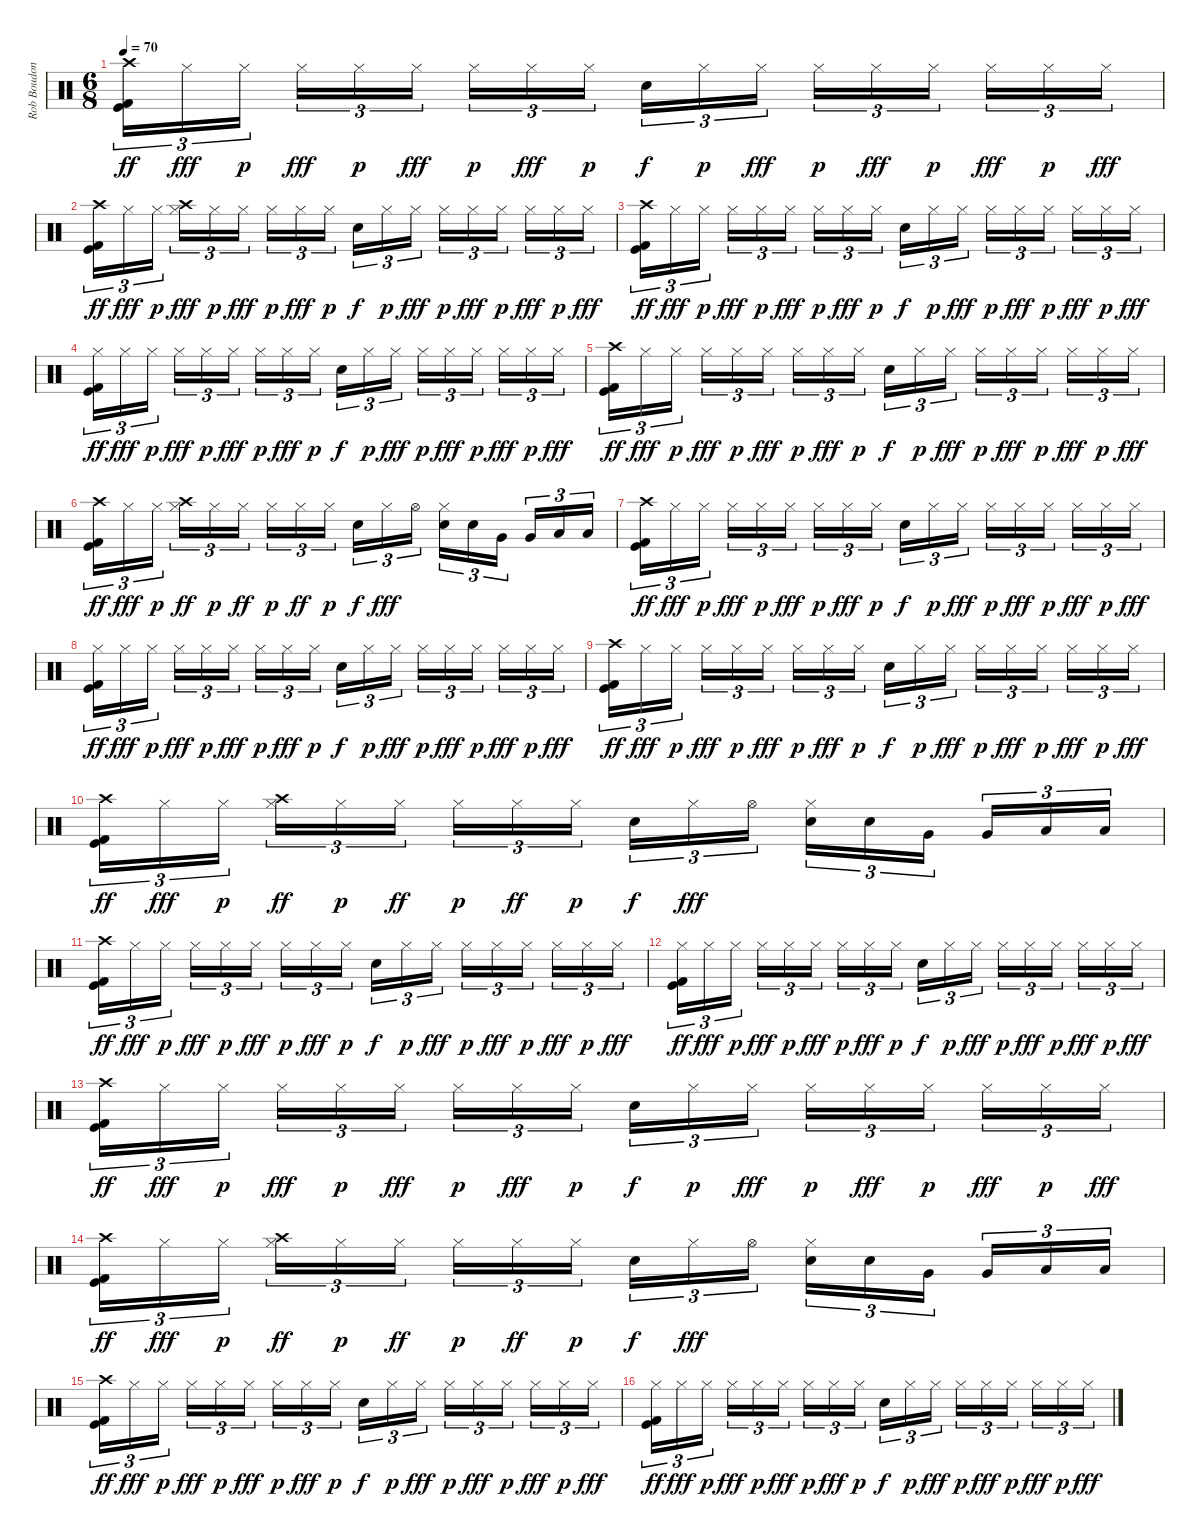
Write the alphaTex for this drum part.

\track ("Rob Boudon [Drums]" "Rob Boudon") {instrument percussion}
\staff {score}
\articulation defaults
\ts (6 8)
\tempo 70
\clef neutral
\ks c
("Crash high (hit)" "Kick (hit) 2" "Kick (hit)").16{tu (3 2) dy ff} "Hi-Hat (closed)".16{tu (3 2) dy fff} "Hi-Hat (closed)".16{tu (3 2) dy p beam splitsecondary} "Hi-Hat (closed)".16{tu (3 2) dy fff} "Hi-Hat (closed)".16{tu (3 2) dy p} "Hi-Hat (closed)".16{tu (3 2) dy fff beam splitsecondary} "Hi-Hat (closed)".16{tu (3 2) dy p} "Hi-Hat (closed)".16{tu (3 2) dy fff} "Hi-Hat (closed)".16{tu (3 2) dy p} "Electric Snare (hit)".16{tu (3 2) dy f} "Hi-Hat (closed)".16{tu (3 2) dy p} "Hi-Hat (closed)".16{tu (3 2) dy fff beam splitsecondary} "Hi-Hat (closed)".16{tu (3 2) dy p} "Hi-Hat (closed)".16{tu (3 2) dy fff} "Hi-Hat (closed)".16{tu (3 2) dy p beam splitsecondary} "Hi-Hat (closed)".16{tu (3 2) dy fff} "Hi-Hat (closed)".16{tu (3 2) dy p} "Hi-Hat (closed)".16{tu (3 2) dy fff} |
("Crash high (hit)" "Kick (hit) 2" "Kick (hit)").16{tu (3 2) dy ff} "Hi-Hat (closed)".16{tu (3 2) dy fff} "Hi-Hat (closed)".16{tu (3 2) dy p beam splitsecondary} ("Crash high (hit)" "Hi-Hat (closed)").16{tu (3 2) dy fff} "Hi-Hat (closed)".16{tu (3 2) dy p} "Hi-Hat (closed)".16{tu (3 2) dy fff beam splitsecondary} "Hi-Hat (closed)".16{tu (3 2) dy p} "Hi-Hat (closed)".16{tu (3 2) dy fff} "Hi-Hat (closed)".16{tu (3 2) dy p} "Electric Snare (hit)".16{tu (3 2) dy f} "Hi-Hat (closed)".16{tu (3 2) dy p} "Hi-Hat (closed)".16{tu (3 2) dy fff beam splitsecondary} "Hi-Hat (closed)".16{tu (3 2) dy p} "Hi-Hat (closed)".16{tu (3 2) dy fff} "Hi-Hat (closed)".16{tu (3 2) dy p beam splitsecondary} "Hi-Hat (closed)".16{tu (3 2) dy fff} "Hi-Hat (closed)".16{tu (3 2) dy p} "Hi-Hat (closed)".16{tu (3 2) dy fff} |
("Crash high (hit)" "Kick (hit) 2" "Kick (hit)").16{tu (3 2) dy ff} "Hi-Hat (closed)".16{tu (3 2) dy fff} "Hi-Hat (closed)".16{tu (3 2) dy p beam splitsecondary} "Hi-Hat (closed)".16{tu (3 2) dy fff} "Hi-Hat (closed)".16{tu (3 2) dy p} "Hi-Hat (closed)".16{tu (3 2) dy fff beam splitsecondary} "Hi-Hat (closed)".16{tu (3 2) dy p} "Hi-Hat (closed)".16{tu (3 2) dy fff} "Hi-Hat (closed)".16{tu (3 2) dy p} "Electric Snare (hit)".16{tu (3 2) dy f} "Hi-Hat (closed)".16{tu (3 2) dy p} "Hi-Hat (closed)".16{tu (3 2) dy fff beam splitsecondary} "Hi-Hat (closed)".16{tu (3 2) dy p} "Hi-Hat (closed)".16{tu (3 2) dy fff} "Hi-Hat (closed)".16{tu (3 2) dy p beam splitsecondary} "Hi-Hat (closed)".16{tu (3 2) dy fff} "Hi-Hat (closed)".16{tu (3 2) dy p} "Hi-Hat (closed)".16{tu (3 2) dy fff} |
("Hi-Hat (closed)" "Kick (hit) 2" "Kick (hit)").16{tu (3 2) dy ff} "Hi-Hat (closed)".16{tu (3 2) dy fff} "Hi-Hat (closed)".16{tu (3 2) dy p beam splitsecondary} "Hi-Hat (closed)".16{tu (3 2) dy fff} "Hi-Hat (closed)".16{tu (3 2) dy p} "Hi-Hat (closed)".16{tu (3 2) dy fff beam splitsecondary} "Hi-Hat (closed)".16{tu (3 2) dy p} "Hi-Hat (closed)".16{tu (3 2) dy fff} "Hi-Hat (closed)".16{tu (3 2) dy p} "Electric Snare (hit)".16{tu (3 2) dy f} "Hi-Hat (closed)".16{tu (3 2) dy p} "Hi-Hat (closed)".16{tu (3 2) dy fff beam splitsecondary} "Hi-Hat (closed)".16{tu (3 2) dy p} "Hi-Hat (closed)".16{tu (3 2) dy fff} "Hi-Hat (closed)".16{tu (3 2) dy p beam splitsecondary} "Hi-Hat (closed)".16{tu (3 2) dy fff} "Hi-Hat (closed)".16{tu (3 2) dy p} "Hi-Hat (closed)".16{tu (3 2) dy fff} |
("Crash high (hit)" "Kick (hit) 2" "Kick (hit)").16{tu (3 2) dy ff} "Hi-Hat (closed)".16{tu (3 2) dy fff} "Hi-Hat (closed)".16{tu (3 2) dy p beam splitsecondary} "Hi-Hat (closed)".16{tu (3 2) dy fff} "Hi-Hat (closed)".16{tu (3 2) dy p} "Hi-Hat (closed)".16{tu (3 2) dy fff beam splitsecondary} "Hi-Hat (closed)".16{tu (3 2) dy p} "Hi-Hat (closed)".16{tu (3 2) dy fff} "Hi-Hat (closed)".16{tu (3 2) dy p} "Electric Snare (hit)".16{tu (3 2) dy f} "Hi-Hat (closed)".16{tu (3 2) dy p} "Hi-Hat (closed)".16{tu (3 2) dy fff beam splitsecondary} "Hi-Hat (closed)".16{tu (3 2) dy p} "Hi-Hat (closed)".16{tu (3 2) dy fff} "Hi-Hat (closed)".16{tu (3 2) dy p beam splitsecondary} "Hi-Hat (closed)".16{tu (3 2) dy fff} "Hi-Hat (closed)".16{tu (3 2) dy p} "Hi-Hat (closed)".16{tu (3 2) dy fff} |
("Crash high (hit)" "Kick (hit) 2" "Kick (hit)").16{tu (3 2) dy ff} "Hi-Hat (closed)".16{tu (3 2) dy fff} "Hi-Hat (closed)".16{tu (3 2) dy p beam splitsecondary} ("Crash high (hit)" "Hi-Hat (closed)").16{tu (3 2) dy ff} "Hi-Hat (closed)".16{tu (3 2) dy p} "Hi-Hat (closed)".16{tu (3 2) dy ff beam splitsecondary} "Hi-Hat (closed)".16{tu (3 2) dy p} "Hi-Hat (closed)".16{tu (3 2) dy ff} "Hi-Hat (closed)".16{tu (3 2) dy p} "Electric Snare (hit)".16{tu (3 2) dy f} "Hi-Hat (closed)".16{tu (3 2) dy fff} "Hi-Hat (open)".16{tu (3 2) beam splitsecondary} ("Hi-Hat (closed)" "Electric Snare (hit)").16{tu (3 2)} "Electric Snare (hit)".16{tu (3 2)} "Very Low Tom (hit)".16{tu (3 2) beam splitsecondary} "Very Low Tom (hit)".16{tu (3 2)} "Low Tom (hit)".16{tu (3 2)} "Low Tom (hit)".16{tu (3 2)} |
("Crash high (hit)" "Kick (hit) 2" "Kick (hit)").16{tu (3 2) dy ff} "Hi-Hat (closed)".16{tu (3 2) dy fff} "Hi-Hat (closed)".16{tu (3 2) dy p beam splitsecondary} "Hi-Hat (closed)".16{tu (3 2) dy fff} "Hi-Hat (closed)".16{tu (3 2) dy p} "Hi-Hat (closed)".16{tu (3 2) dy fff beam splitsecondary} "Hi-Hat (closed)".16{tu (3 2) dy p} "Hi-Hat (closed)".16{tu (3 2) dy fff} "Hi-Hat (closed)".16{tu (3 2) dy p} "Electric Snare (hit)".16{tu (3 2) dy f} "Hi-Hat (closed)".16{tu (3 2) dy p} "Hi-Hat (closed)".16{tu (3 2) dy fff beam splitsecondary} "Hi-Hat (closed)".16{tu (3 2) dy p} "Hi-Hat (closed)".16{tu (3 2) dy fff} "Hi-Hat (closed)".16{tu (3 2) dy p beam splitsecondary} "Hi-Hat (closed)".16{tu (3 2) dy fff} "Hi-Hat (closed)".16{tu (3 2) dy p} "Hi-Hat (closed)".16{tu (3 2) dy fff} |
("Hi-Hat (closed)" "Kick (hit) 2" "Kick (hit)").16{tu (3 2) dy ff} "Hi-Hat (closed)".16{tu (3 2) dy fff} "Hi-Hat (closed)".16{tu (3 2) dy p beam splitsecondary} "Hi-Hat (closed)".16{tu (3 2) dy fff} "Hi-Hat (closed)".16{tu (3 2) dy p} "Hi-Hat (closed)".16{tu (3 2) dy fff beam splitsecondary} "Hi-Hat (closed)".16{tu (3 2) dy p} "Hi-Hat (closed)".16{tu (3 2) dy fff} "Hi-Hat (closed)".16{tu (3 2) dy p} "Electric Snare (hit)".16{tu (3 2) dy f} "Hi-Hat (closed)".16{tu (3 2) dy p} "Hi-Hat (closed)".16{tu (3 2) dy fff beam splitsecondary} "Hi-Hat (closed)".16{tu (3 2) dy p} "Hi-Hat (closed)".16{tu (3 2) dy fff} "Hi-Hat (closed)".16{tu (3 2) dy p beam splitsecondary} "Hi-Hat (closed)".16{tu (3 2) dy fff} "Hi-Hat (closed)".16{tu (3 2) dy p} "Hi-Hat (closed)".16{tu (3 2) dy fff} |
("Crash high (hit)" "Kick (hit) 2" "Kick (hit)").16{tu (3 2) dy ff} "Hi-Hat (closed)".16{tu (3 2) dy fff} "Hi-Hat (closed)".16{tu (3 2) dy p beam splitsecondary} "Hi-Hat (closed)".16{tu (3 2) dy fff} "Hi-Hat (closed)".16{tu (3 2) dy p} "Hi-Hat (closed)".16{tu (3 2) dy fff beam splitsecondary} "Hi-Hat (closed)".16{tu (3 2) dy p} "Hi-Hat (closed)".16{tu (3 2) dy fff} "Hi-Hat (closed)".16{tu (3 2) dy p} "Electric Snare (hit)".16{tu (3 2) dy f} "Hi-Hat (closed)".16{tu (3 2) dy p} "Hi-Hat (closed)".16{tu (3 2) dy fff beam splitsecondary} "Hi-Hat (closed)".16{tu (3 2) dy p} "Hi-Hat (closed)".16{tu (3 2) dy fff} "Hi-Hat (closed)".16{tu (3 2) dy p beam splitsecondary} "Hi-Hat (closed)".16{tu (3 2) dy fff} "Hi-Hat (closed)".16{tu (3 2) dy p} "Hi-Hat (closed)".16{tu (3 2) dy fff} |
("Crash high (hit)" "Kick (hit) 2" "Kick (hit)").16{tu (3 2) dy ff} "Hi-Hat (closed)".16{tu (3 2) dy fff} "Hi-Hat (closed)".16{tu (3 2) dy p beam splitsecondary} ("Crash high (hit)" "Hi-Hat (closed)").16{tu (3 2) dy ff} "Hi-Hat (closed)".16{tu (3 2) dy p} "Hi-Hat (closed)".16{tu (3 2) dy ff beam splitsecondary} "Hi-Hat (closed)".16{tu (3 2) dy p} "Hi-Hat (closed)".16{tu (3 2) dy ff} "Hi-Hat (closed)".16{tu (3 2) dy p} "Electric Snare (hit)".16{tu (3 2) dy f} "Hi-Hat (closed)".16{tu (3 2) dy fff} "Hi-Hat (open)".16{tu (3 2) beam splitsecondary} ("Hi-Hat (closed)" "Electric Snare (hit)").16{tu (3 2)} "Electric Snare (hit)".16{tu (3 2)} "Very Low Tom (hit)".16{tu (3 2) beam splitsecondary} "Very Low Tom (hit)".16{tu (3 2)} "Low Tom (hit)".16{tu (3 2)} "Low Tom (hit)".16{tu (3 2)} |
("Crash high (hit)" "Kick (hit) 2" "Kick (hit)").16{tu (3 2) dy ff} "Hi-Hat (closed)".16{tu (3 2) dy fff} "Hi-Hat (closed)".16{tu (3 2) dy p beam splitsecondary} "Hi-Hat (closed)".16{tu (3 2) dy fff} "Hi-Hat (closed)".16{tu (3 2) dy p} "Hi-Hat (closed)".16{tu (3 2) dy fff beam splitsecondary} "Hi-Hat (closed)".16{tu (3 2) dy p} "Hi-Hat (closed)".16{tu (3 2) dy fff} "Hi-Hat (closed)".16{tu (3 2) dy p} "Electric Snare (hit)".16{tu (3 2) dy f} "Hi-Hat (closed)".16{tu (3 2) dy p} "Hi-Hat (closed)".16{tu (3 2) dy fff beam splitsecondary} "Hi-Hat (closed)".16{tu (3 2) dy p} "Hi-Hat (closed)".16{tu (3 2) dy fff} "Hi-Hat (closed)".16{tu (3 2) dy p beam splitsecondary} "Hi-Hat (closed)".16{tu (3 2) dy fff} "Hi-Hat (closed)".16{tu (3 2) dy p} "Hi-Hat (closed)".16{tu (3 2) dy fff} |
("Hi-Hat (closed)" "Kick (hit) 2" "Kick (hit)").16{tu (3 2) dy ff} "Hi-Hat (closed)".16{tu (3 2) dy fff} "Hi-Hat (closed)".16{tu (3 2) dy p beam splitsecondary} "Hi-Hat (closed)".16{tu (3 2) dy fff} "Hi-Hat (closed)".16{tu (3 2) dy p} "Hi-Hat (closed)".16{tu (3 2) dy fff beam splitsecondary} "Hi-Hat (closed)".16{tu (3 2) dy p} "Hi-Hat (closed)".16{tu (3 2) dy fff} "Hi-Hat (closed)".16{tu (3 2) dy p} "Electric Snare (hit)".16{tu (3 2) dy f} "Hi-Hat (closed)".16{tu (3 2) dy p} "Hi-Hat (closed)".16{tu (3 2) dy fff beam splitsecondary} "Hi-Hat (closed)".16{tu (3 2) dy p} "Hi-Hat (closed)".16{tu (3 2) dy fff} "Hi-Hat (closed)".16{tu (3 2) dy p beam splitsecondary} "Hi-Hat (closed)".16{tu (3 2) dy fff} "Hi-Hat (closed)".16{tu (3 2) dy p} "Hi-Hat (closed)".16{tu (3 2) dy fff} |
("Crash high (hit)" "Kick (hit) 2" "Kick (hit)").16{tu (3 2) dy ff} "Hi-Hat (closed)".16{tu (3 2) dy fff} "Hi-Hat (closed)".16{tu (3 2) dy p beam splitsecondary} "Hi-Hat (closed)".16{tu (3 2) dy fff} "Hi-Hat (closed)".16{tu (3 2) dy p} "Hi-Hat (closed)".16{tu (3 2) dy fff beam splitsecondary} "Hi-Hat (closed)".16{tu (3 2) dy p} "Hi-Hat (closed)".16{tu (3 2) dy fff} "Hi-Hat (closed)".16{tu (3 2) dy p} "Electric Snare (hit)".16{tu (3 2) dy f} "Hi-Hat (closed)".16{tu (3 2) dy p} "Hi-Hat (closed)".16{tu (3 2) dy fff beam splitsecondary} "Hi-Hat (closed)".16{tu (3 2) dy p} "Hi-Hat (closed)".16{tu (3 2) dy fff} "Hi-Hat (closed)".16{tu (3 2) dy p beam splitsecondary} "Hi-Hat (closed)".16{tu (3 2) dy fff} "Hi-Hat (closed)".16{tu (3 2) dy p} "Hi-Hat (closed)".16{tu (3 2) dy fff} |
("Crash high (hit)" "Kick (hit) 2" "Kick (hit)").16{tu (3 2) dy ff} "Hi-Hat (closed)".16{tu (3 2) dy fff} "Hi-Hat (closed)".16{tu (3 2) dy p beam splitsecondary} ("Crash high (hit)" "Hi-Hat (closed)").16{tu (3 2) dy ff} "Hi-Hat (closed)".16{tu (3 2) dy p} "Hi-Hat (closed)".16{tu (3 2) dy ff beam splitsecondary} "Hi-Hat (closed)".16{tu (3 2) dy p} "Hi-Hat (closed)".16{tu (3 2) dy ff} "Hi-Hat (closed)".16{tu (3 2) dy p} "Electric Snare (hit)".16{tu (3 2) dy f} "Hi-Hat (closed)".16{tu (3 2) dy fff} "Hi-Hat (open)".16{tu (3 2) beam splitsecondary} ("Hi-Hat (closed)" "Electric Snare (hit)").16{tu (3 2)} "Electric Snare (hit)".16{tu (3 2)} "Very Low Tom (hit)".16{tu (3 2) beam splitsecondary} "Very Low Tom (hit)".16{tu (3 2)} "Low Tom (hit)".16{tu (3 2)} "Low Tom (hit)".16{tu (3 2)} |
("Crash high (hit)" "Kick (hit) 2" "Kick (hit)").16{tu (3 2) dy ff} "Hi-Hat (closed)".16{tu (3 2) dy fff} "Hi-Hat (closed)".16{tu (3 2) dy p beam splitsecondary} "Hi-Hat (closed)".16{tu (3 2) dy fff} "Hi-Hat (closed)".16{tu (3 2) dy p} "Hi-Hat (closed)".16{tu (3 2) dy fff beam splitsecondary} "Hi-Hat (closed)".16{tu (3 2) dy p} "Hi-Hat (closed)".16{tu (3 2) dy fff} "Hi-Hat (closed)".16{tu (3 2) dy p} "Electric Snare (hit)".16{tu (3 2) dy f} "Hi-Hat (closed)".16{tu (3 2) dy p} "Hi-Hat (closed)".16{tu (3 2) dy fff beam splitsecondary} "Hi-Hat (closed)".16{tu (3 2) dy p} "Hi-Hat (closed)".16{tu (3 2) dy fff} "Hi-Hat (closed)".16{tu (3 2) dy p beam splitsecondary} "Hi-Hat (closed)".16{tu (3 2) dy fff} "Hi-Hat (closed)".16{tu (3 2) dy p} "Hi-Hat (closed)".16{tu (3 2) dy fff} |
("Hi-Hat (closed)" "Kick (hit) 2" "Kick (hit)").16{tu (3 2) dy ff} "Hi-Hat (closed)".16{tu (3 2) dy fff} "Hi-Hat (closed)".16{tu (3 2) dy p beam splitsecondary} "Hi-Hat (closed)".16{tu (3 2) dy fff} "Hi-Hat (closed)".16{tu (3 2) dy p} "Hi-Hat (closed)".16{tu (3 2) dy fff beam splitsecondary} "Hi-Hat (closed)".16{tu (3 2) dy p} "Hi-Hat (closed)".16{tu (3 2) dy fff} "Hi-Hat (closed)".16{tu (3 2) dy p} "Electric Snare (hit)".16{tu (3 2) dy f} "Hi-Hat (closed)".16{tu (3 2) dy p} "Hi-Hat (closed)".16{tu (3 2) dy fff beam splitsecondary} "Hi-Hat (closed)".16{tu (3 2) dy p} "Hi-Hat (closed)".16{tu (3 2) dy fff} "Hi-Hat (closed)".16{tu (3 2) dy p beam splitsecondary} "Hi-Hat (closed)".16{tu (3 2) dy fff} "Hi-Hat (closed)".16{tu (3 2) dy p} "Hi-Hat (closed)".16{tu (3 2) dy fff}
